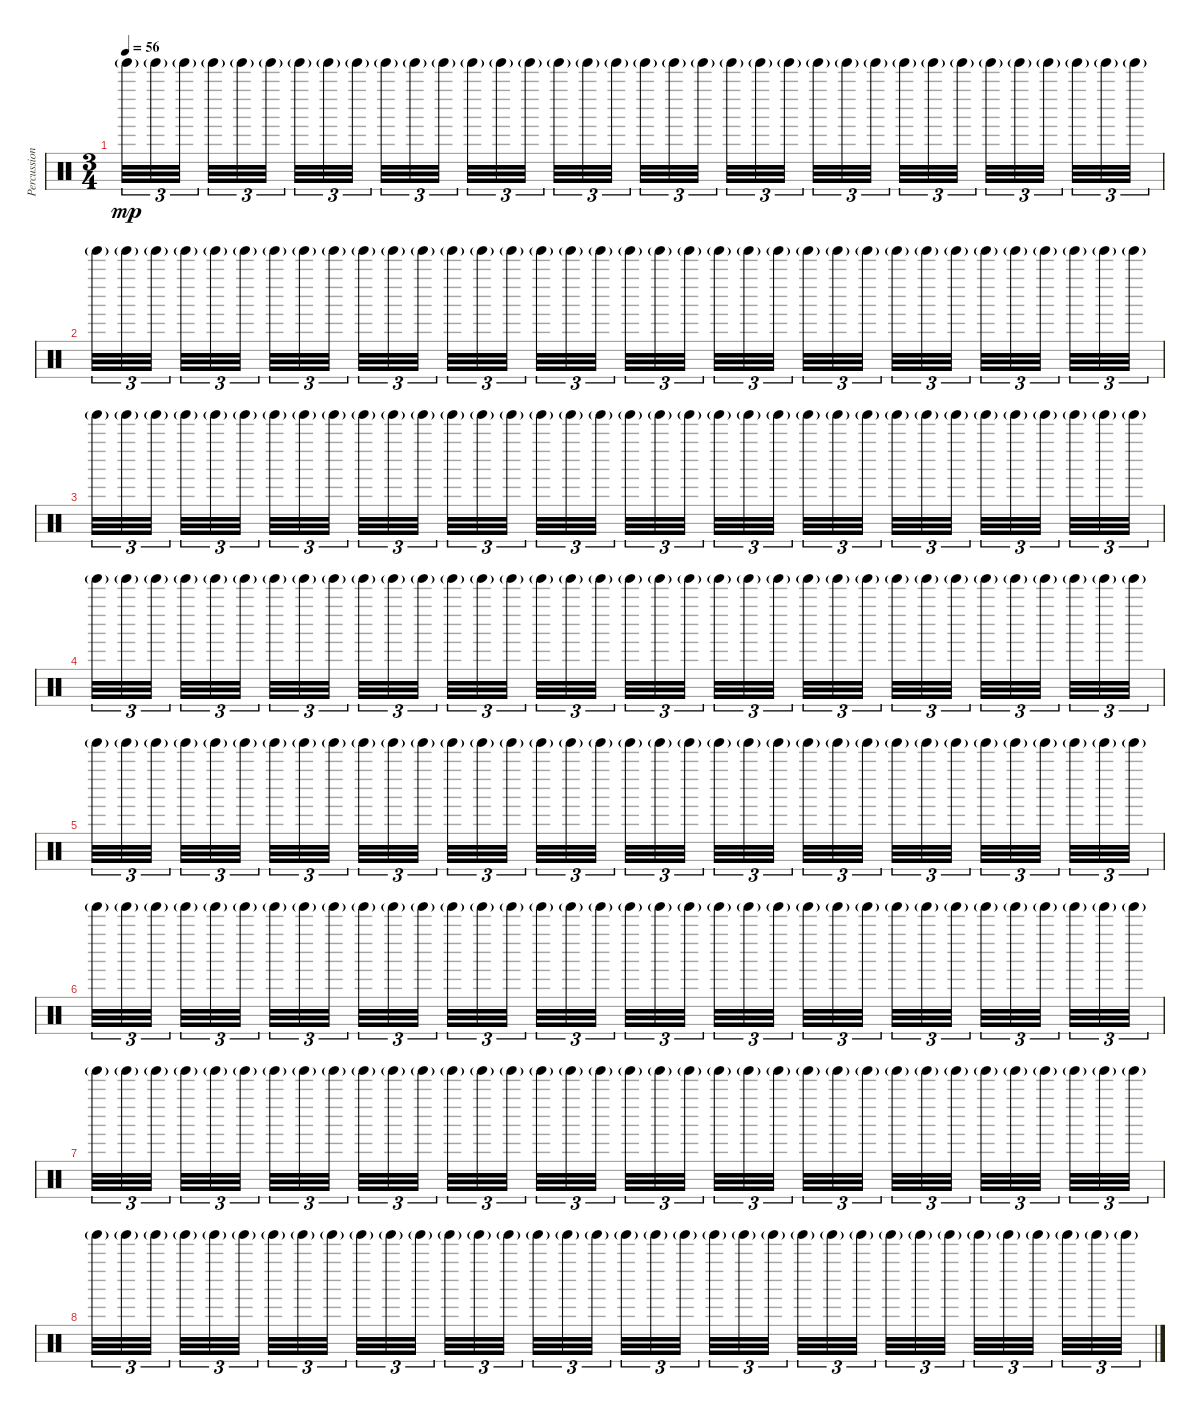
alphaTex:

\track ("Percussion" "Percussion") {instrument percussion}
\staff {score}
\articulation defaults
\ts (3 4)
\tempo 56
\clef neutral
\ks c "Tinkle Bell (hit)"{g}.32{tu (3 2) dy mp} "Tinkle Bell (hit)"{g}.32{tu (3 2)} "Tinkle Bell (hit)"{g}.32{tu (3 2) beam splitsecondary} "Tinkle Bell (hit)"{g}.32{tu (3 2)} "Tinkle Bell (hit)"{g}.32{tu (3 2)} "Tinkle Bell (hit)"{g}.32{tu (3 2) beam splitsecondary} "Tinkle Bell (hit)"{g}.32{tu (3 2)} "Tinkle Bell (hit)"{g}.32{tu (3 2)} "Tinkle Bell (hit)"{g}.32{tu (3 2) beam splitsecondary} "Tinkle Bell (hit)"{g}.32{tu (3 2)} "Tinkle Bell (hit)"{g}.32{tu (3 2)} "Tinkle Bell (hit)"{g}.32{tu (3 2)} "Tinkle Bell (hit)"{g}.32{tu (3 2)} "Tinkle Bell (hit)"{g}.32{tu (3 2)} "Tinkle Bell (hit)"{g}.32{tu (3 2) beam splitsecondary} "Tinkle Bell (hit)"{g}.32{tu (3 2)} "Tinkle Bell (hit)"{g}.32{tu (3 2)} "Tinkle Bell (hit)"{g}.32{tu (3 2) beam splitsecondary} "Tinkle Bell (hit)"{g}.32{tu (3 2)} "Tinkle Bell (hit)"{g}.32{tu (3 2)} "Tinkle Bell (hit)"{g}.32{tu (3 2) beam splitsecondary} "Tinkle Bell (hit)"{g}.32{tu (3 2)} "Tinkle Bell (hit)"{g}.32{tu (3 2)} "Tinkle Bell (hit)"{g}.32{tu (3 2)} "Tinkle Bell (hit)"{g}.32{tu (3 2)} "Tinkle Bell (hit)"{g}.32{tu (3 2)} "Tinkle Bell (hit)"{g}.32{tu (3 2) beam splitsecondary} "Tinkle Bell (hit)"{g}.32{tu (3 2)} "Tinkle Bell (hit)"{g}.32{tu (3 2)} "Tinkle Bell (hit)"{g}.32{tu (3 2) beam splitsecondary} "Tinkle Bell (hit)"{g}.32{tu (3 2)} "Tinkle Bell (hit)"{g}.32{tu (3 2)} "Tinkle Bell (hit)"{g}.32{tu (3 2) beam splitsecondary} "Tinkle Bell (hit)"{g}.32{tu (3 2)} "Tinkle Bell (hit)"{g}.32{tu (3 2)} "Tinkle Bell (hit)"{g}.32{tu (3 2)}
|
"Tinkle Bell (hit)"{g}.32{tu (3 2)} "Tinkle Bell (hit)"{g}.32{tu (3 2)} "Tinkle Bell (hit)"{g}.32{tu (3 2) beam splitsecondary} "Tinkle Bell (hit)"{g}.32{tu (3 2)} "Tinkle Bell (hit)"{g}.32{tu (3 2)} "Tinkle Bell (hit)"{g}.32{tu (3 2) beam splitsecondary} "Tinkle Bell (hit)"{g}.32{tu (3 2)} "Tinkle Bell (hit)"{g}.32{tu (3 2)} "Tinkle Bell (hit)"{g}.32{tu (3 2) beam splitsecondary} "Tinkle Bell (hit)"{g}.32{tu (3 2)} "Tinkle Bell (hit)"{g}.32{tu (3 2)} "Tinkle Bell (hit)"{g}.32{tu (3 2)} "Tinkle Bell (hit)"{g}.32{tu (3 2)} "Tinkle Bell (hit)"{g}.32{tu (3 2)} "Tinkle Bell (hit)"{g}.32{tu (3 2) beam splitsecondary} "Tinkle Bell (hit)"{g}.32{tu (3 2)} "Tinkle Bell (hit)"{g}.32{tu (3 2)} "Tinkle Bell (hit)"{g}.32{tu (3 2) beam splitsecondary} "Tinkle Bell (hit)"{g}.32{tu (3 2)} "Tinkle Bell (hit)"{g}.32{tu (3 2)} "Tinkle Bell (hit)"{g}.32{tu (3 2) beam splitsecondary} "Tinkle Bell (hit)"{g}.32{tu (3 2)} "Tinkle Bell (hit)"{g}.32{tu (3 2)} "Tinkle Bell (hit)"{g}.32{tu (3 2)} "Tinkle Bell (hit)"{g}.32{tu (3 2)} "Tinkle Bell (hit)"{g}.32{tu (3 2)} "Tinkle Bell (hit)"{g}.32{tu (3 2) beam splitsecondary} "Tinkle Bell (hit)"{g}.32{tu (3 2)} "Tinkle Bell (hit)"{g}.32{tu (3 2)} "Tinkle Bell (hit)"{g}.32{tu (3 2) beam splitsecondary} "Tinkle Bell (hit)"{g}.32{tu (3 2)} "Tinkle Bell (hit)"{g}.32{tu (3 2)} "Tinkle Bell (hit)"{g}.32{tu (3 2) beam splitsecondary} "Tinkle Bell (hit)"{g}.32{tu (3 2)} "Tinkle Bell (hit)"{g}.32{tu (3 2)} "Tinkle Bell (hit)"{g}.32{tu (3 2)} |
"Tinkle Bell (hit)"{g}.32{tu (3 2)} "Tinkle Bell (hit)"{g}.32{tu (3 2)} "Tinkle Bell (hit)"{g}.32{tu (3 2) beam splitsecondary} "Tinkle Bell (hit)"{g}.32{tu (3 2)} "Tinkle Bell (hit)"{g}.32{tu (3 2)} "Tinkle Bell (hit)"{g}.32{tu (3 2) beam splitsecondary} "Tinkle Bell (hit)"{g}.32{tu (3 2)} "Tinkle Bell (hit)"{g}.32{tu (3 2)} "Tinkle Bell (hit)"{g}.32{tu (3 2) beam splitsecondary} "Tinkle Bell (hit)"{g}.32{tu (3 2)} "Tinkle Bell (hit)"{g}.32{tu (3 2)} "Tinkle Bell (hit)"{g}.32{tu (3 2)} "Tinkle Bell (hit)"{g}.32{tu (3 2)} "Tinkle Bell (hit)"{g}.32{tu (3 2)} "Tinkle Bell (hit)"{g}.32{tu (3 2) beam splitsecondary} "Tinkle Bell (hit)"{g}.32{tu (3 2)} "Tinkle Bell (hit)"{g}.32{tu (3 2)} "Tinkle Bell (hit)"{g}.32{tu (3 2) beam splitsecondary} "Tinkle Bell (hit)"{g}.32{tu (3 2)} "Tinkle Bell (hit)"{g}.32{tu (3 2)} "Tinkle Bell (hit)"{g}.32{tu (3 2) beam splitsecondary} "Tinkle Bell (hit)"{g}.32{tu (3 2)} "Tinkle Bell (hit)"{g}.32{tu (3 2)} "Tinkle Bell (hit)"{g}.32{tu (3 2)} "Tinkle Bell (hit)"{g}.32{tu (3 2)} "Tinkle Bell (hit)"{g}.32{tu (3 2)} "Tinkle Bell (hit)"{g}.32{tu (3 2) beam splitsecondary} "Tinkle Bell (hit)"{g}.32{tu (3 2)} "Tinkle Bell (hit)"{g}.32{tu (3 2)} "Tinkle Bell (hit)"{g}.32{tu (3 2) beam splitsecondary} "Tinkle Bell (hit)"{g}.32{tu (3 2)} "Tinkle Bell (hit)"{g}.32{tu (3 2)} "Tinkle Bell (hit)"{g}.32{tu (3 2) beam splitsecondary} "Tinkle Bell (hit)"{g}.32{tu (3 2)} "Tinkle Bell (hit)"{g}.32{tu (3 2)} "Tinkle Bell (hit)"{g}.32{tu (3 2)} |
"Tinkle Bell (hit)"{g}.32{tu (3 2)} "Tinkle Bell (hit)"{g}.32{tu (3 2)} "Tinkle Bell (hit)"{g}.32{tu (3 2) beam splitsecondary} "Tinkle Bell (hit)"{g}.32{tu (3 2)} "Tinkle Bell (hit)"{g}.32{tu (3 2)} "Tinkle Bell (hit)"{g}.32{tu (3 2) beam splitsecondary} "Tinkle Bell (hit)"{g}.32{tu (3 2)} "Tinkle Bell (hit)"{g}.32{tu (3 2)} "Tinkle Bell (hit)"{g}.32{tu (3 2) beam splitsecondary} "Tinkle Bell (hit)"{g}.32{tu (3 2)} "Tinkle Bell (hit)"{g}.32{tu (3 2)} "Tinkle Bell (hit)"{g}.32{tu (3 2)} "Tinkle Bell (hit)"{g}.32{tu (3 2)} "Tinkle Bell (hit)"{g}.32{tu (3 2)} "Tinkle Bell (hit)"{g}.32{tu (3 2) beam splitsecondary} "Tinkle Bell (hit)"{g}.32{tu (3 2)} "Tinkle Bell (hit)"{g}.32{tu (3 2)} "Tinkle Bell (hit)"{g}.32{tu (3 2) beam splitsecondary} "Tinkle Bell (hit)"{g}.32{tu (3 2)} "Tinkle Bell (hit)"{g}.32{tu (3 2)} "Tinkle Bell (hit)"{g}.32{tu (3 2) beam splitsecondary} "Tinkle Bell (hit)"{g}.32{tu (3 2)} "Tinkle Bell (hit)"{g}.32{tu (3 2)} "Tinkle Bell (hit)"{g}.32{tu (3 2)} "Tinkle Bell (hit)"{g}.32{tu (3 2)} "Tinkle Bell (hit)"{g}.32{tu (3 2)} "Tinkle Bell (hit)"{g}.32{tu (3 2) beam splitsecondary} "Tinkle Bell (hit)"{g}.32{tu (3 2)} "Tinkle Bell (hit)"{g}.32{tu (3 2)} "Tinkle Bell (hit)"{g}.32{tu (3 2) beam splitsecondary} "Tinkle Bell (hit)"{g}.32{tu (3 2)} "Tinkle Bell (hit)"{g}.32{tu (3 2)} "Tinkle Bell (hit)"{g}.32{tu (3 2) beam splitsecondary} "Tinkle Bell (hit)"{g}.32{tu (3 2)} "Tinkle Bell (hit)"{g}.32{tu (3 2)} "Tinkle Bell (hit)"{g}.32{tu (3 2)} |
"Tinkle Bell (hit)"{g}.32{tu (3 2)} "Tinkle Bell (hit)"{g}.32{tu (3 2)} "Tinkle Bell (hit)"{g}.32{tu (3 2) beam splitsecondary} "Tinkle Bell (hit)"{g}.32{tu (3 2)} "Tinkle Bell (hit)"{g}.32{tu (3 2)} "Tinkle Bell (hit)"{g}.32{tu (3 2) beam splitsecondary} "Tinkle Bell (hit)"{g}.32{tu (3 2)} "Tinkle Bell (hit)"{g}.32{tu (3 2)} "Tinkle Bell (hit)"{g}.32{tu (3 2) beam splitsecondary} "Tinkle Bell (hit)"{g}.32{tu (3 2)} "Tinkle Bell (hit)"{g}.32{tu (3 2)} "Tinkle Bell (hit)"{g}.32{tu (3 2)} "Tinkle Bell (hit)"{g}.32{tu (3 2)} "Tinkle Bell (hit)"{g}.32{tu (3 2)} "Tinkle Bell (hit)"{g}.32{tu (3 2) beam splitsecondary} "Tinkle Bell (hit)"{g}.32{tu (3 2)} "Tinkle Bell (hit)"{g}.32{tu (3 2)} "Tinkle Bell (hit)"{g}.32{tu (3 2) beam splitsecondary} "Tinkle Bell (hit)"{g}.32{tu (3 2)} "Tinkle Bell (hit)"{g}.32{tu (3 2)} "Tinkle Bell (hit)"{g}.32{tu (3 2) beam splitsecondary} "Tinkle Bell (hit)"{g}.32{tu (3 2)} "Tinkle Bell (hit)"{g}.32{tu (3 2)} "Tinkle Bell (hit)"{g}.32{tu (3 2)} "Tinkle Bell (hit)"{g}.32{tu (3 2)} "Tinkle Bell (hit)"{g}.32{tu (3 2)} "Tinkle Bell (hit)"{g}.32{tu (3 2) beam splitsecondary} "Tinkle Bell (hit)"{g}.32{tu (3 2)} "Tinkle Bell (hit)"{g}.32{tu (3 2)} "Tinkle Bell (hit)"{g}.32{tu (3 2) beam splitsecondary} "Tinkle Bell (hit)"{g}.32{tu (3 2)} "Tinkle Bell (hit)"{g}.32{tu (3 2)} "Tinkle Bell (hit)"{g}.32{tu (3 2) beam splitsecondary} "Tinkle Bell (hit)"{g}.32{tu (3 2)} "Tinkle Bell (hit)"{g}.32{tu (3 2)} "Tinkle Bell (hit)"{g}.32{tu (3 2)} |
"Tinkle Bell (hit)"{g}.32{tu (3 2) volume 2} "Tinkle Bell (hit)"{g}.32{tu (3 2)} "Tinkle Bell (hit)"{g}.32{tu (3 2) beam splitsecondary} "Tinkle Bell (hit)"{g}.32{tu (3 2)} "Tinkle Bell (hit)"{g}.32{tu (3 2)} "Tinkle Bell (hit)"{g}.32{tu (3 2) beam splitsecondary} "Tinkle Bell (hit)"{g}.32{tu (3 2)} "Tinkle Bell (hit)"{g}.32{tu (3 2)} "Tinkle Bell (hit)"{g}.32{tu (3 2) beam splitsecondary} "Tinkle Bell (hit)"{g}.32{tu (3 2)} "Tinkle Bell (hit)"{g}.32{tu (3 2)} "Tinkle Bell (hit)"{g}.32{tu (3 2)} "Tinkle Bell (hit)"{g}.32{tu (3 2)} "Tinkle Bell (hit)"{g}.32{tu (3 2)} "Tinkle Bell (hit)"{g}.32{tu (3 2) beam splitsecondary} "Tinkle Bell (hit)"{g}.32{tu (3 2)} "Tinkle Bell (hit)"{g}.32{tu (3 2)} "Tinkle Bell (hit)"{g}.32{tu (3 2) beam splitsecondary} "Tinkle Bell (hit)"{g}.32{tu (3 2)} "Tinkle Bell (hit)"{g}.32{tu (3 2)} "Tinkle Bell (hit)"{g}.32{tu (3 2) beam splitsecondary} "Tinkle Bell (hit)"{g}.32{tu (3 2)} "Tinkle Bell (hit)"{g}.32{tu (3 2)} "Tinkle Bell (hit)"{g}.32{tu (3 2)} "Tinkle Bell (hit)"{g}.32{tu (3 2)} "Tinkle Bell (hit)"{g}.32{tu (3 2)} "Tinkle Bell (hit)"{g}.32{tu (3 2) beam splitsecondary} "Tinkle Bell (hit)"{g}.32{tu (3 2)} "Tinkle Bell (hit)"{g}.32{tu (3 2)} "Tinkle Bell (hit)"{g}.32{tu (3 2) beam splitsecondary} "Tinkle Bell (hit)"{g}.32{tu (3 2)} "Tinkle Bell (hit)"{g}.32{tu (3 2)} "Tinkle Bell (hit)"{g}.32{tu (3 2) beam splitsecondary} "Tinkle Bell (hit)"{g}.32{tu (3 2)} "Tinkle Bell (hit)"{g}.32{tu (3 2)} "Tinkle Bell (hit)"{g}.32{tu (3 2)} |
"Tinkle Bell (hit)"{g}.32{tu (3 2)} "Tinkle Bell (hit)"{g}.32{tu (3 2)} "Tinkle Bell (hit)"{g}.32{tu (3 2) beam splitsecondary} "Tinkle Bell (hit)"{g}.32{tu (3 2)} "Tinkle Bell (hit)"{g}.32{tu (3 2)} "Tinkle Bell (hit)"{g}.32{tu (3 2) beam splitsecondary} "Tinkle Bell (hit)"{g}.32{tu (3 2)} "Tinkle Bell (hit)"{g}.32{tu (3 2)} "Tinkle Bell (hit)"{g}.32{tu (3 2) beam splitsecondary} "Tinkle Bell (hit)"{g}.32{tu (3 2)} "Tinkle Bell (hit)"{g}.32{tu (3 2)} "Tinkle Bell (hit)"{g}.32{tu (3 2)} "Tinkle Bell (hit)"{g}.32{tu (3 2)} "Tinkle Bell (hit)"{g}.32{tu (3 2)} "Tinkle Bell (hit)"{g}.32{tu (3 2) beam splitsecondary} "Tinkle Bell (hit)"{g}.32{tu (3 2)} "Tinkle Bell (hit)"{g}.32{tu (3 2)} "Tinkle Bell (hit)"{g}.32{tu (3 2) beam splitsecondary} "Tinkle Bell (hit)"{g}.32{tu (3 2)} "Tinkle Bell (hit)"{g}.32{tu (3 2)} "Tinkle Bell (hit)"{g}.32{tu (3 2) beam splitsecondary} "Tinkle Bell (hit)"{g}.32{tu (3 2)} "Tinkle Bell (hit)"{g}.32{tu (3 2)} "Tinkle Bell (hit)"{g}.32{tu (3 2)} "Tinkle Bell (hit)"{g}.32{tu (3 2)} "Tinkle Bell (hit)"{g}.32{tu (3 2)} "Tinkle Bell (hit)"{g}.32{tu (3 2) beam splitsecondary} "Tinkle Bell (hit)"{g}.32{tu (3 2)} "Tinkle Bell (hit)"{g}.32{tu (3 2)} "Tinkle Bell (hit)"{g}.32{tu (3 2) beam splitsecondary} "Tinkle Bell (hit)"{g}.32{tu (3 2)} "Tinkle Bell (hit)"{g}.32{tu (3 2)} "Tinkle Bell (hit)"{g}.32{tu (3 2) beam splitsecondary} "Tinkle Bell (hit)"{g}.32{tu (3 2)} "Tinkle Bell (hit)"{g}.32{tu (3 2)} "Tinkle Bell (hit)"{g}.32{tu (3 2)} |
"Tinkle Bell (hit)"{g}.32{tu (3 2)} "Tinkle Bell (hit)"{g}.32{tu (3 2)} "Tinkle Bell (hit)"{g}.32{tu (3 2) beam splitsecondary} "Tinkle Bell (hit)"{g}.32{tu (3 2)} "Tinkle Bell (hit)"{g}.32{tu (3 2)} "Tinkle Bell (hit)"{g}.32{tu (3 2) beam splitsecondary} "Tinkle Bell (hit)"{g}.32{tu (3 2)} "Tinkle Bell (hit)"{g}.32{tu (3 2)} "Tinkle Bell (hit)"{g}.32{tu (3 2) beam splitsecondary} "Tinkle Bell (hit)"{g}.32{tu (3 2)} "Tinkle Bell (hit)"{g}.32{tu (3 2)} "Tinkle Bell (hit)"{g}.32{tu (3 2)} "Tinkle Bell (hit)"{g}.32{tu (3 2)} "Tinkle Bell (hit)"{g}.32{tu (3 2)} "Tinkle Bell (hit)"{g}.32{tu (3 2) beam splitsecondary} "Tinkle Bell (hit)"{g}.32{tu (3 2)} "Tinkle Bell (hit)"{g}.32{tu (3 2)} "Tinkle Bell (hit)"{g}.32{tu (3 2) beam splitsecondary} "Tinkle Bell (hit)"{g}.32{tu (3 2)} "Tinkle Bell (hit)"{g}.32{tu (3 2)} "Tinkle Bell (hit)"{g}.32{tu (3 2) beam splitsecondary} "Tinkle Bell (hit)"{g}.32{tu (3 2)} "Tinkle Bell (hit)"{g}.32{tu (3 2)} "Tinkle Bell (hit)"{g}.32{tu (3 2)} "Tinkle Bell (hit)"{g}.32{tu (3 2)} "Tinkle Bell (hit)"{g}.32{tu (3 2)} "Tinkle Bell (hit)"{g}.32{tu (3 2) beam splitsecondary} "Tinkle Bell (hit)"{g}.32{tu (3 2)} "Tinkle Bell (hit)"{g}.32{tu (3 2)} "Tinkle Bell (hit)"{g}.32{tu (3 2) beam splitsecondary} "Tinkle Bell (hit)"{g}.32{tu (3 2)} "Tinkle Bell (hit)"{g}.32{tu (3 2)} "Tinkle Bell (hit)"{g}.32{tu (3 2) beam splitsecondary} "Tinkle Bell (hit)"{g}.32{tu (3 2)} "Tinkle Bell (hit)"{g}.32{tu (3 2)} "Tinkle Bell (hit)"{g}.32{tu (3 2)}
